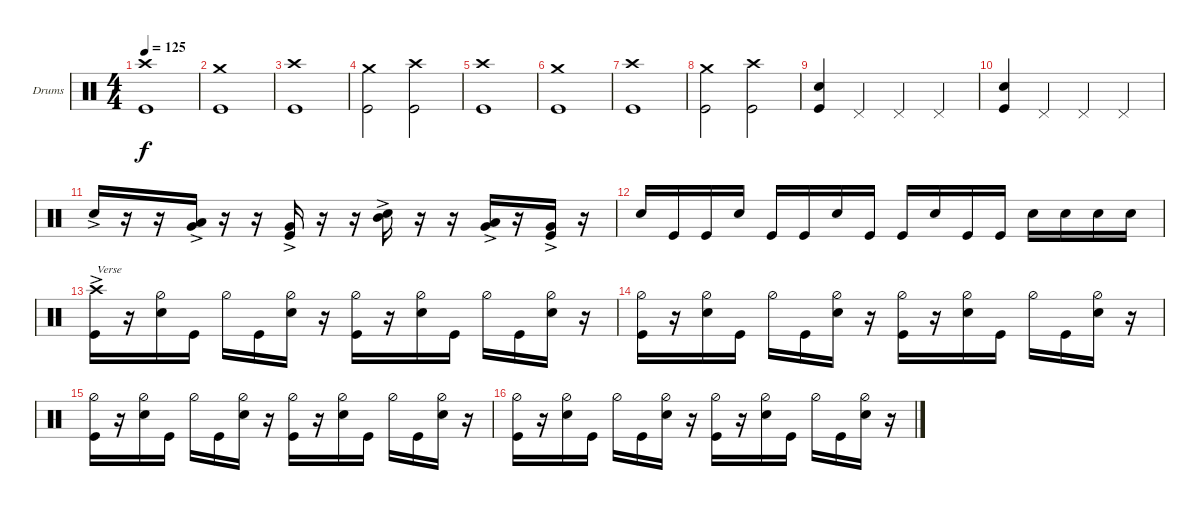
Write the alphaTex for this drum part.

\defaultSystemsLayout 4
\bracketExtendMode groupsimilarinstruments
\firstSystemTrackNameOrientation horizontal
\otherSystemsTrackNameOrientation horizontal
\track ("Lorenzo Milani" "Drums") {instrument percussion}
\staff {score}
\articulation defaults
\ts (4 4)
\tempo 125
\clef neutral
\ks c
("Kick (hit)" "Crash high (hit)").1{dy f} |
("Kick (hit)" "Crash medium (hit)").1 |
("Kick (hit)" "Crash high (hit)").1 |
("Kick (hit)" "Crash medium (hit)").2 ("Kick (hit)" "Crash high (hit)").2 |
("Kick (hit)" "Crash high (hit)").1 |
("Kick (hit)" "Crash medium (hit)").1 |
("Kick (hit)" "Crash high (hit)").1 |
("Kick (hit)" "Crash medium (hit)").2 ("Kick (hit)" "Crash high (hit)").2 |
("Kick (hit)" "Snare (hit) 2").4 "Pedal Hi-Hat (hit)".4 "Pedal Hi-Hat (hit)".4 "Pedal Hi-Hat (hit)".4 |
("Kick (hit)" "Snare (hit) 2").4 "Pedal Hi-Hat (hit)".4 "Pedal Hi-Hat (hit)".4 "Pedal Hi-Hat (hit)".4 |
"Snare (hit) 2"{ac}.16 r.16 r.16 ("Low Tom (hit)"{ac} "Very Low Tom (hit)"{ac}).16 r.16 r.16 ("Very Low Tom (hit)"{ac} "Kick (hit)"{ac}).16 r.16 r.16 ("Snare (hit) 2"{ac} "Mid Tom (hit)"{ac}).16 r.16 r.16 ("Low Tom (hit)"{ac} "Very Low Tom (hit)"{ac}).16 r.16 ("Very Low Tom (hit)"{ac} "Kick (hit)"{ac}).16 r.16 |
"Snare (hit) 2".16 "Kick (hit)".16 "Kick (hit)".16 "Snare (hit) 2".16 "Kick (hit)".16 "Kick (hit)".16 "Snare (hit) 2".16 "Kick (hit)".16 "Kick (hit)".16 "Snare (hit) 2".16 "Kick (hit)".16 "Kick (hit)".16 "Snare (hit) 2".16 "Snare (hit) 2".16 "Snare (hit) 2".16 "Snare (hit) 2".16 |
("Kick (hit)"{ac} "Crash high (hit)"{ac}).16{txt "Verse"} r.16 ("Snare (hit) 2" "Hi-Hat (half)").16 "Kick (hit)".16 "Hi-Hat (half)".16 "Kick (hit)".16 ("Snare (hit) 2" "Hi-Hat (half)").16 r.16 ("Kick (hit)" "Hi-Hat (half)").16 r.16 ("Snare (hit) 2" "Hi-Hat (half)").16 "Kick (hit)".16 "Hi-Hat (half)".16 "Kick (hit)".16 ("Snare (hit) 2" "Hi-Hat (half)").16 r.16 |
("Kick (hit)" "Hi-Hat (half)").16 r.16 ("Snare (hit) 2" "Hi-Hat (half)").16 "Kick (hit)".16 "Hi-Hat (half)".16 "Kick (hit)".16 ("Snare (hit) 2" "Hi-Hat (half)").16 r.16 ("Kick (hit)" "Hi-Hat (half)").16 r.16 ("Snare (hit) 2" "Hi-Hat (half)").16 "Kick (hit)".16 "Hi-Hat (half)".16 "Kick (hit)".16 ("Snare (hit) 2" "Hi-Hat (half)").16 r.16 |
("Kick (hit)" "Hi-Hat (half)").16 r.16 ("Snare (hit) 2" "Hi-Hat (half)").16 "Kick (hit)".16 "Hi-Hat (half)".16 "Kick (hit)".16 ("Snare (hit) 2" "Hi-Hat (half)").16 r.16 ("Kick (hit)" "Hi-Hat (half)").16 r.16 ("Snare (hit) 2" "Hi-Hat (half)").16 "Kick (hit)".16 "Hi-Hat (half)".16 "Kick (hit)".16 ("Snare (hit) 2" "Hi-Hat (half)").16 r.16 |
("Kick (hit)" "Hi-Hat (half)").16 r.16 ("Snare (hit) 2" "Hi-Hat (half)").16 "Kick (hit)".16 "Hi-Hat (half)".16 "Kick (hit)".16 ("Snare (hit) 2" "Hi-Hat (half)").16 r.16 ("Kick (hit)" "Hi-Hat (half)").16 r.16 ("Snare (hit) 2" "Hi-Hat (half)").16 "Kick (hit)".16 "Hi-Hat (half)".16 "Kick (hit)".16 ("Snare (hit) 2" "Hi-Hat (half)").16 r.16
